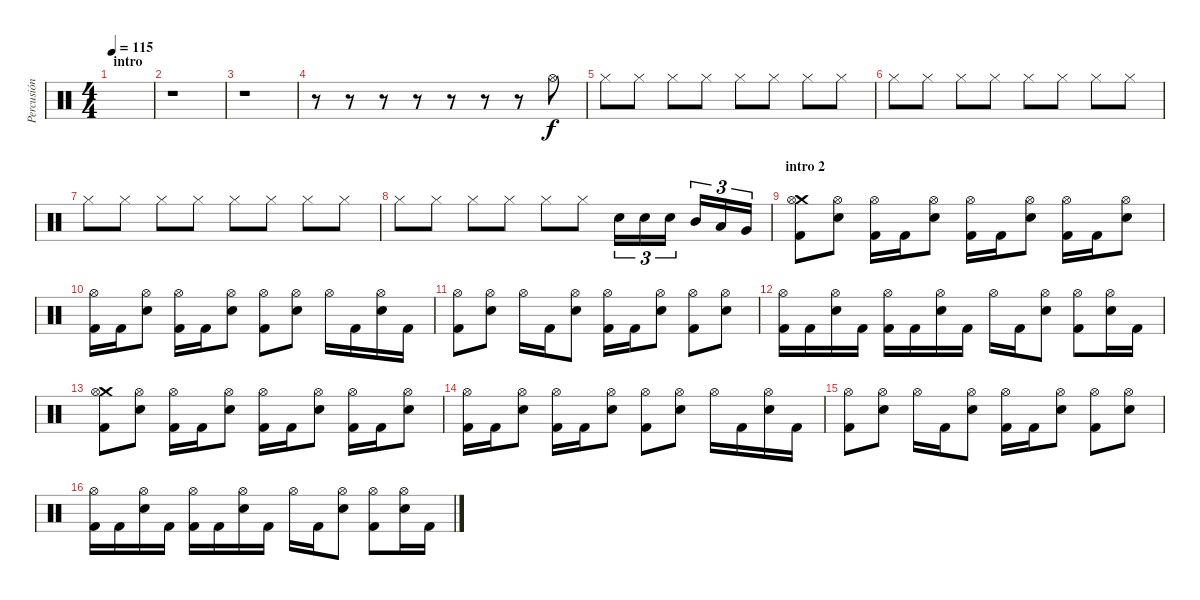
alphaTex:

\track ("Percusión" "Percusión") {instrument percussion}
\staff {score}
\articulation defaults
\ts (4 4)
\section ("" "intro")
\tempo 115
\clef neutral
\ks c
|
r.1 |
r.1 |
r.8 r.8 r.8 r.8 r.8 r.8 r.8 "Hi-Hat (open)".8 |
"Hi-Hat (closed)".8 "Hi-Hat (closed)".8 "Hi-Hat (closed)".8 "Hi-Hat (closed)".8 "Hi-Hat (closed)".8 "Hi-Hat (closed)".8 "Hi-Hat (closed)".8 "Hi-Hat (closed)".8 |
"Hi-Hat (closed)".8 "Hi-Hat (closed)".8 "Hi-Hat (closed)".8 "Hi-Hat (closed)".8 "Hi-Hat (closed)".8 "Hi-Hat (closed)".8 "Hi-Hat (closed)".8 "Hi-Hat (closed)".8 |
"Hi-Hat (closed)".8 "Hi-Hat (closed)".8 "Hi-Hat (closed)".8 "Hi-Hat (closed)".8 "Hi-Hat (closed)".8 "Hi-Hat (closed)".8 "Hi-Hat (closed)".8 "Hi-Hat (closed)".8 |
"Hi-Hat (closed)".8 "Hi-Hat (closed)".8 "Hi-Hat (closed)".8 "Hi-Hat (closed)".8 "Hi-Hat (closed)".8 "Hi-Hat (closed)".8 "Electric Snare (hit)".16{tu (3 2)} "Electric Snare (hit)".16{tu (3 2)} "Electric Snare (hit)".16{tu (3 2)} "Mid Tom (hit)".16{tu (3 2)} "Low Tom (hit)".16{tu (3 2)} "Very Low Tom (hit)".16{tu (3 2)} |
\section ("" "intro 2")
("Crash medium (hit)" "Hi-Hat (open)" "Kick (hit) 2").8 ("Hi-Hat (open)" "Electric Snare (hit)").8 ("Hi-Hat (open)" "Kick (hit) 2").16 "Kick (hit) 2".16 ("Hi-Hat (open)" "Electric Snare (hit)").8 ("Hi-Hat (open)" "Kick (hit) 2").16 "Kick (hit) 2".16 ("Hi-Hat (open)" "Electric Snare (hit)").8 ("Hi-Hat (open)" "Kick (hit) 2").16 "Kick (hit) 2".16 ("Hi-Hat (open)" "Electric Snare (hit)").8 |
("Hi-Hat (open)" "Kick (hit) 2").16 "Kick (hit) 2".16 ("Hi-Hat (open)" "Electric Snare (hit)").8 ("Hi-Hat (open)" "Kick (hit) 2").16 "Kick (hit) 2".16 ("Hi-Hat (open)" "Electric Snare (hit)").8 ("Hi-Hat (open)" "Kick (hit) 2").8 ("Hi-Hat (open)" "Electric Snare (hit)").8 "Hi-Hat (open)".16 "Kick (hit) 2".16 ("Hi-Hat (open)" "Electric Snare (hit)").16 "Kick (hit) 2".16 |
("Hi-Hat (open)" "Kick (hit) 2").8 ("Hi-Hat (open)" "Electric Snare (hit)").8 "Hi-Hat (open)".16 "Kick (hit) 2".16 ("Hi-Hat (open)" "Electric Snare (hit)").8 ("Hi-Hat (open)" "Kick (hit) 2").16 "Kick (hit) 2".16 ("Hi-Hat (open)" "Electric Snare (hit)").8 ("Hi-Hat (open)" "Kick (hit) 2").8 ("Hi-Hat (open)" "Electric Snare (hit)").8 |
("Hi-Hat (open)" "Kick (hit) 2").16 "Kick (hit) 2".16 ("Hi-Hat (open)" "Electric Snare (hit)").16 "Kick (hit) 2".16 ("Hi-Hat (open)" "Kick (hit) 2").16 "Kick (hit) 2".16 ("Hi-Hat (open)" "Electric Snare (hit)").16 "Kick (hit) 2".16 "Hi-Hat (open)".16 "Kick (hit) 2".16 ("Hi-Hat (open)" "Electric Snare (hit)").8 ("Hi-Hat (open)" "Kick (hit) 2").8 ("Hi-Hat (open)" "Electric Snare (hit)").16 "Kick (hit) 2".16 |
("Crash medium (hit)" "Hi-Hat (open)" "Kick (hit) 2").8 ("Hi-Hat (open)" "Electric Snare (hit)").8 ("Hi-Hat (open)" "Kick (hit) 2").16 "Kick (hit) 2".16 ("Hi-Hat (open)" "Electric Snare (hit)").8 ("Hi-Hat (open)" "Kick (hit) 2").16 "Kick (hit) 2".16 ("Hi-Hat (open)" "Electric Snare (hit)").8 ("Hi-Hat (open)" "Kick (hit) 2").16 "Kick (hit) 2".16 ("Hi-Hat (open)" "Electric Snare (hit)").8 |
("Hi-Hat (open)" "Kick (hit) 2").16 "Kick (hit) 2".16 ("Hi-Hat (open)" "Electric Snare (hit)").8 ("Hi-Hat (open)" "Kick (hit) 2").16 "Kick (hit) 2".16 ("Hi-Hat (open)" "Electric Snare (hit)").8 ("Hi-Hat (open)" "Kick (hit) 2").8 ("Hi-Hat (open)" "Electric Snare (hit)").8 "Hi-Hat (open)".16 "Kick (hit) 2".16 ("Hi-Hat (open)" "Electric Snare (hit)").16 "Kick (hit) 2".16 |
("Hi-Hat (open)" "Kick (hit) 2").8 ("Hi-Hat (open)" "Electric Snare (hit)").8 "Hi-Hat (open)".16 "Kick (hit) 2".16 ("Hi-Hat (open)" "Electric Snare (hit)").8 ("Hi-Hat (open)" "Kick (hit) 2").16 "Kick (hit) 2".16 ("Hi-Hat (open)" "Electric Snare (hit)").8 ("Hi-Hat (open)" "Kick (hit) 2").8 ("Hi-Hat (open)" "Electric Snare (hit)").8 |
("Hi-Hat (open)" "Kick (hit) 2").16 "Kick (hit) 2".16 ("Hi-Hat (open)" "Electric Snare (hit)").16 "Kick (hit) 2".16 ("Hi-Hat (open)" "Kick (hit) 2").16 "Kick (hit) 2".16 ("Hi-Hat (open)" "Electric Snare (hit)").16 "Kick (hit) 2".16 "Hi-Hat (open)".16 "Kick (hit) 2".16 ("Hi-Hat (open)" "Electric Snare (hit)").8 ("Hi-Hat (open)" "Kick (hit) 2").8 ("Hi-Hat (open)" "Electric Snare (hit)").16 "Kick (hit) 2".16
